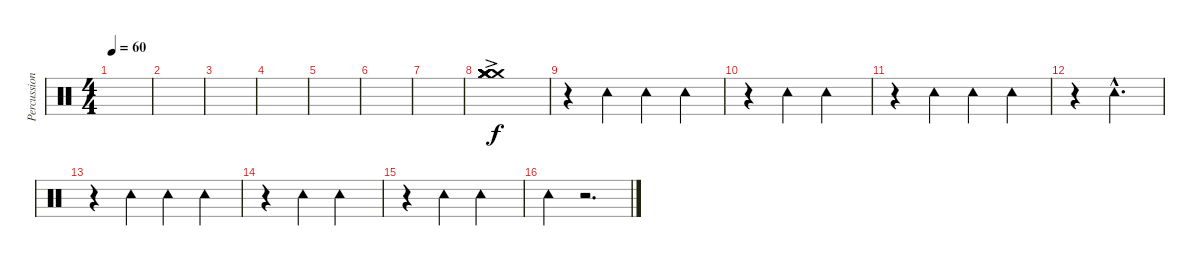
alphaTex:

\track ("Percussion" "Percussion") {instrument percussion}
\staff {score}
\articulation defaults
\ts (4 4)
\tempo 60
\clef neutral
\ks c
|
|
|
|
|
|
|
("Crash medium (hit)"{ac} "Crash medium (hit)" "Crash medium (hit)" "Crash medium (hit)" "Crash medium (hit)" "Crash medium (hit)").1 |
r.4 "Tambourine (hit)".4{dy f} "Tambourine (hit)".4 "Tambourine (hit)".4 |
r.4 "Tambourine (hit)".4 "Tambourine (hit)".2 |
r.4 "Tambourine (hit)".4 "Tambourine (hit)".4 "Tambourine (hit)".4 |
r.4 "Tambourine (hit)"{hac}.2{d} |
r.4 "Tambourine (hit)".4 "Tambourine (hit)".4 "Tambourine (hit)".4 |
r.4 "Tambourine (hit)".4 "Tambourine (hit)".2 |
r.4 "Tambourine (hit)".4 "Tambourine (hit)".2 |
"Tambourine (hit)".4 r.2{d}
